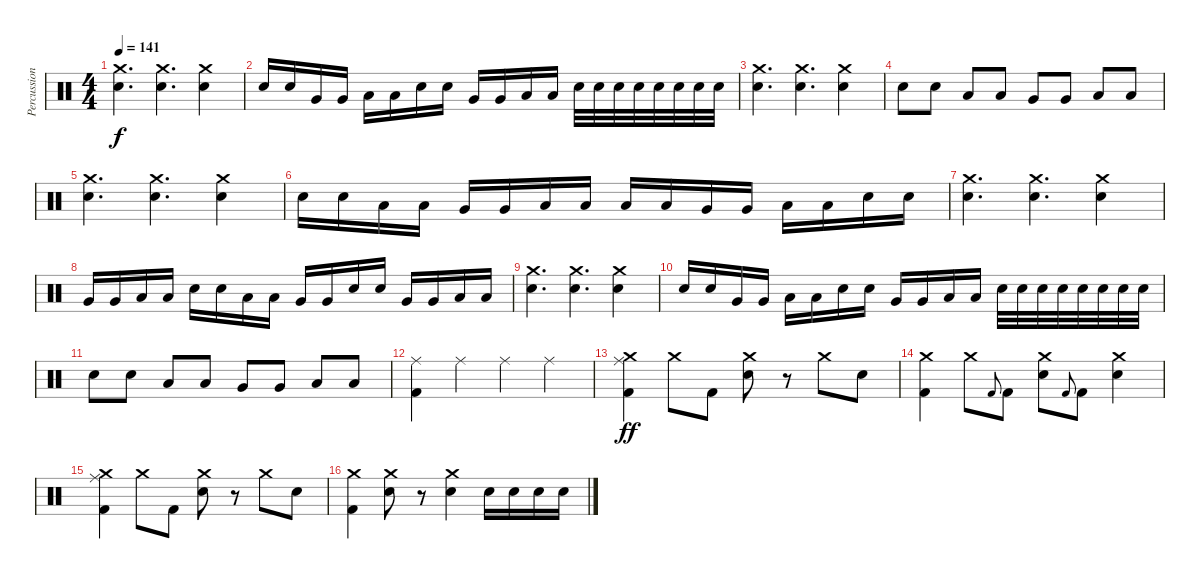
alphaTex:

\track ("Percussion" "Percussion") {instrument percussion}
\staff {score}
\articulation defaults
\ts (4 4)
\tempo 141
\clef neutral
\ks c
("Crash medium (hit)" "Electric Snare (hit)").4{d dy f} ("Crash medium (hit)" "Electric Snare (hit)").4{d} ("Crash medium (hit)" "Electric Snare (hit)").4 |
"Electric Snare (hit)".16 "Electric Snare (hit)".16 "Very Low Tom (hit)".16 "Very Low Tom (hit)".16 "Low Floor Tom (hit)".16 "Low Floor Tom (hit)".16 "Electric Snare (hit)".16 "Electric Snare (hit)".16 "Very Low Tom (hit)".16 "Very Low Tom (hit)".16 "Low Floor Tom (hit)".16 "Low Floor Tom (hit)".16 "Electric Snare (hit)".32 "Electric Snare (hit)".32 "Electric Snare (hit)".32 "Electric Snare (hit)".32 "Electric Snare (hit)".32 "Electric Snare (hit)".32 "Electric Snare (hit)".32 "Electric Snare (hit)".32 |
("Crash medium (hit)" "Electric Snare (hit)").4{d} ("Crash medium (hit)" "Electric Snare (hit)").4{d} ("Crash medium (hit)" "Electric Snare (hit)").4 |
"Electric Snare (hit)".8 "Electric Snare (hit)".8 "Low Tom (hit)".8 "Low Tom (hit)".8 "Very Low Tom (hit)".8 "Very Low Tom (hit)".8 "Low Floor Tom (hit)".8 "Low Floor Tom (hit)".8 |
("Crash medium (hit)" "Electric Snare (hit)").4{d} ("Crash medium (hit)" "Electric Snare (hit)").4{d} ("Crash medium (hit)" "Electric Snare (hit)").4 |
"Electric Snare (hit)".16 "Electric Snare (hit)".16 "Low Tom (hit)".16 "Low Tom (hit)".16 "Very Low Tom (hit)".16 "Very Low Tom (hit)".16 "Low Floor Tom (hit)".16 "Low Floor Tom (hit)".16 "Low Tom (hit)".16 "Low Tom (hit)".16 "Very Low Tom (hit)".16 "Very Low Tom (hit)".16 "Low Floor Tom (hit)".16 "Low Floor Tom (hit)".16 "Electric Snare (hit)".16 "Electric Snare (hit)".16 |
("Crash medium (hit)" "Electric Snare (hit)").4{d} ("Crash medium (hit)" "Electric Snare (hit)").4{d} ("Crash medium (hit)" "Electric Snare (hit)").4 |
"Very Low Tom (hit)".16 "Very Low Tom (hit)".16 "Low Tom (hit)".16 "Low Tom (hit)".16 "Electric Snare (hit)".16 "Electric Snare (hit)".16 "Low Floor Tom (hit)".16 "Low Floor Tom (hit)".16 "Very Low Tom (hit)".16 "Very Low Tom (hit)".16 "Electric Snare (hit)".16 "Electric Snare (hit)".16 "Very Low Tom (hit)".16 "Very Low Tom (hit)".16 "Low Floor Tom (hit)".16 "Low Floor Tom (hit)".16 |
("Crash medium (hit)" "Electric Snare (hit)").4{d} ("Crash medium (hit)" "Electric Snare (hit)").4{d} ("Crash medium (hit)" "Electric Snare (hit)").4 |
"Electric Snare (hit)".16 "Electric Snare (hit)".16 "Very Low Tom (hit)".16 "Very Low Tom (hit)".16 "Low Floor Tom (hit)".16 "Low Floor Tom (hit)".16 "Electric Snare (hit)".16 "Electric Snare (hit)".16 "Very Low Tom (hit)".16 "Very Low Tom (hit)".16 "Low Floor Tom (hit)".16 "Low Floor Tom (hit)".16 "Electric Snare (hit)".32 "Electric Snare (hit)".32 "Electric Snare (hit)".32 "Electric Snare (hit)".32 "Electric Snare (hit)".32 "Electric Snare (hit)".32 "Electric Snare (hit)".32 "Electric Snare (hit)".32 |
"Electric Snare (hit)".8 "Electric Snare (hit)".8 "Low Tom (hit)".8 "Low Tom (hit)".8 "Very Low Tom (hit)".8 "Very Low Tom (hit)".8 "Low Floor Tom (hit)".8 "Low Floor Tom (hit)".8 |
("Ride (middle)" "Kick (hit) 2").4 "Ride (middle)".4 "Ride (middle)".4 "Ride (middle)".4 |
("Ride (middle)" "Crash medium (hit)" "Kick (hit) 2").4{dy ff volume 15} "Crash medium (hit)".8 "Kick (hit) 2".8 ("Crash medium (hit)" "Electric Snare (hit)").8 r.8 "Crash medium (hit)".8 "Electric Snare (hit)".8 |
("Crash medium (hit)" "Kick (hit) 2").4 "Crash medium (hit)".8 "Kick (hit) 2".8{gr onbeat} "Kick (hit) 2".8 ("Crash medium (hit)" "Electric Snare (hit)").8 "Kick (hit) 2".8{gr onbeat} "Kick (hit) 2".8 ("Crash medium (hit)" "Electric Snare (hit)").4 |
("Ride (middle)" "Crash medium (hit)" "Kick (hit) 2").4 "Crash medium (hit)".8 "Kick (hit) 2".8 ("Crash medium (hit)" "Electric Snare (hit)").8 r.8 "Crash medium (hit)".8 "Electric Snare (hit)".8 |
("Crash medium (hit)" "Kick (hit) 2").4 ("Crash medium (hit)" "Electric Snare (hit)").8 r.8 ("Crash medium (hit)" "Electric Snare (hit)").4 "Electric Snare (hit)".16 "Electric Snare (hit)".16 "Electric Snare (hit)".16 "Electric Snare (hit)".16
